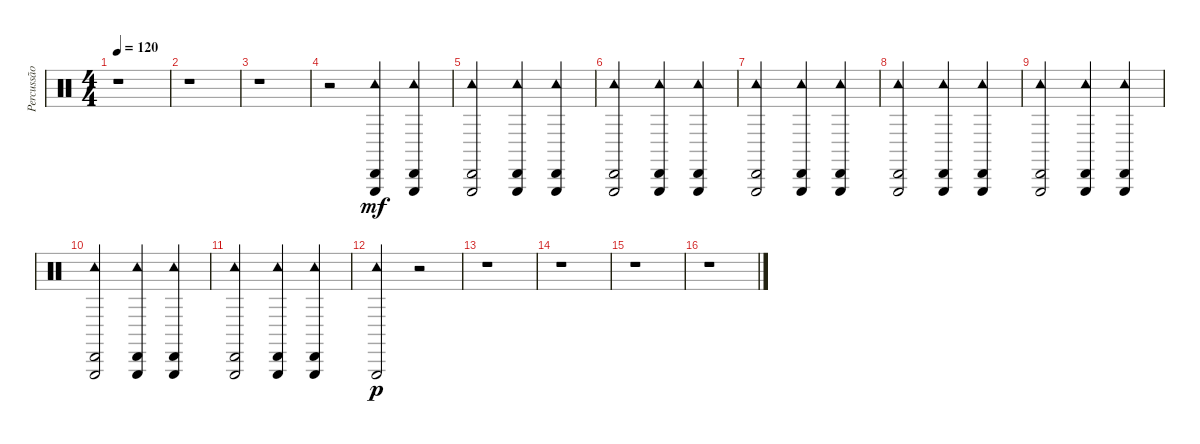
\track ("Percussão" "Percussão") {instrument percussion}
\staff {score}
\articulation defaults
\ts (4 4)
\tempo 120
\clef neutral
\ks c
r.1{dy mf} |
r.1 |
r.1 |
r.2 ("Tambourine (hit)" "Triangle (hit)" "Cabasa (hit)").4 ("Tambourine (hit)" "Triangle (hit)" "Cabasa (hit)").4 |
("Tambourine (hit)" "Triangle (hit)" "Cabasa (hit)").2 ("Tambourine (hit)" "Triangle (hit)" "Cabasa (hit)").4 ("Tambourine (hit)" "Triangle (hit)" "Cabasa (hit)").4 |
("Tambourine (hit)" "Triangle (hit)" "Cabasa (hit)").2 ("Tambourine (hit)" "Triangle (hit)" "Cabasa (hit)").4 ("Tambourine (hit)" "Triangle (hit)" "Cabasa (hit)").4 |
("Tambourine (hit)" "Triangle (hit)" "Cabasa (hit)").2 ("Tambourine (hit)" "Triangle (hit)" "Cabasa (hit)").4 ("Tambourine (hit)" "Triangle (hit)" "Cabasa (hit)").4 |
("Tambourine (hit)" "Triangle (hit)" "Cabasa (hit)").2 ("Tambourine (hit)" "Triangle (hit)" "Cabasa (hit)").4 ("Tambourine (hit)" "Triangle (hit)" "Cabasa (hit)").4 |
("Tambourine (hit)" "Triangle (hit)" "Cabasa (hit)").2 ("Tambourine (hit)" "Triangle (hit)" "Cabasa (hit)").4 ("Tambourine (hit)" "Triangle (hit)" "Cabasa (hit)").4 |
("Tambourine (hit)" "Triangle (hit)" "Cabasa (hit)").2 ("Tambourine (hit)" "Triangle (hit)" "Cabasa (hit)").4 ("Tambourine (hit)" "Triangle (hit)" "Cabasa (hit)").4 |
("Tambourine (hit)" "Triangle (hit)" "Cabasa (hit)").2 ("Tambourine (hit)" "Triangle (hit)" "Cabasa (hit)").4 ("Tambourine (hit)" "Triangle (hit)" "Cabasa (hit)").4 |
("Tambourine (hit)" "Triangle (hit)").2{dy p} r.2 |
r.1 |
r.1 |
r.1 |
r.1
